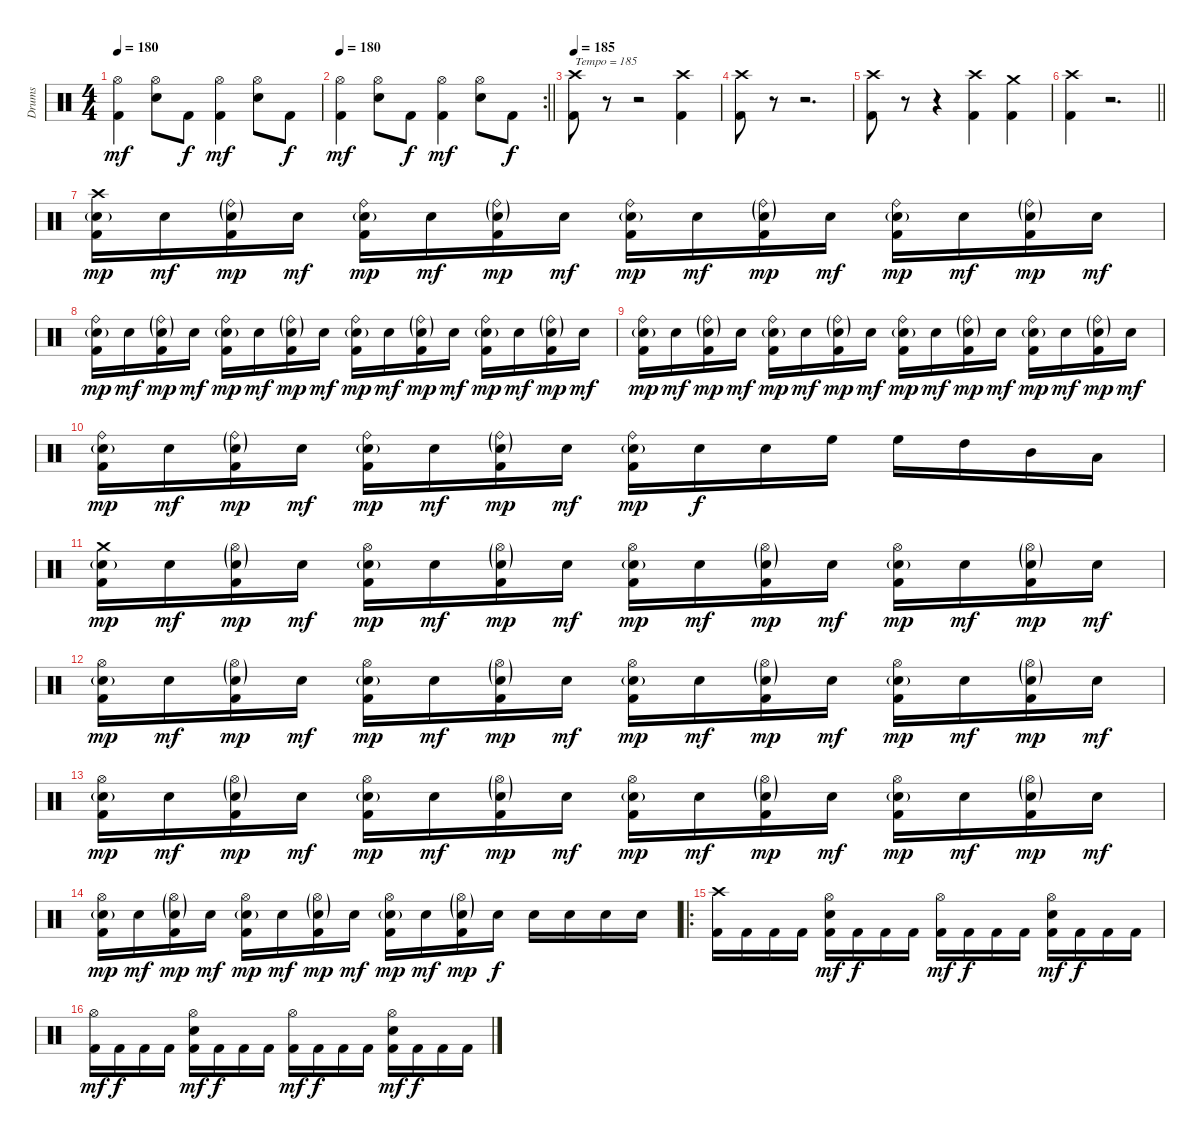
\track ("Drums" "Drums") {instrument percussion}
\staff {score}
\articulation defaults
\ts (4 4)
\tempo 180
\clef neutral
\ks c
("Hi-Hat (open)" "Kick (hit) 2").4{dy mf} ("Hi-Hat (open)" "Electric Snare (hit)").8 "Kick (hit) 2".8{dy f} ("Hi-Hat (open)" "Kick (hit) 2").4{dy mf} ("Hi-Hat (open)" "Electric Snare (hit)").8 "Kick (hit) 2".8{dy f} |
\rc 2
\tempo 180
\barLineRight lightlight
("Hi-Hat (open)" "Kick (hit) 2").4{dy mf} ("Hi-Hat (open)" "Electric Snare (hit)").8 "Kick (hit) 2".8{dy f} ("Hi-Hat (open)" "Kick (hit) 2").4{dy mf} ("Hi-Hat (open)" "Electric Snare (hit)").8 "Kick (hit) 2".8{dy f} |
\tempo 185
("Crash high (hit)" "Kick (hit) 2").8{txt "Tempo = 185"} r.8{volume 0} r.2 ("Crash high (hit)" "Kick (hit) 2").4{volume 14} |
("Crash high (hit)" "Kick (hit) 2").8 r.8{volume 0} r.2{d} |
("Crash high (hit)" "Kick (hit) 2").8{volume 14} r.8{volume 0} r.4 ("Crash high (hit)" "Kick (hit) 2").4{volume 14} ("Crash medium (hit)" "Kick (hit) 2").4 |
\barLineRight lightlight
("Crash high (hit)" "Kick (hit) 2").4 r.2{d volume 0} |
("Crash high (hit)" "Electric Snare (hit)"{g} "Kick (hit) 2").16{dy mp volume 14} "Electric Snare (hit)".16{dy mf} ("Ride (bell)"{g} "Electric Snare (hit)"{g} "Kick (hit) 2").16{dy mp} "Electric Snare (hit)".16{dy mf} ("Ride (bell)" "Electric Snare (hit)"{g} "Kick (hit) 2").16{dy mp} "Electric Snare (hit)".16{dy mf} ("Ride (bell)"{g} "Electric Snare (hit)"{g} "Kick (hit) 2").16{dy mp} "Electric Snare (hit)".16{dy mf} ("Ride (bell)" "Electric Snare (hit)"{g} "Kick (hit) 2").16{dy mp} "Electric Snare (hit)".16{dy mf} ("Ride (bell)"{g} "Electric Snare (hit)"{g} "Kick (hit) 2").16{dy mp} "Electric Snare (hit)".16{dy mf} ("Ride (bell)" "Electric Snare (hit)"{g} "Kick (hit) 2").16{dy mp} "Electric Snare (hit)".16{dy mf} ("Ride (bell)"{g} "Electric Snare (hit)"{g} "Kick (hit) 2").16{dy mp} "Electric Snare (hit)".16{dy mf} |
("Ride (bell)" "Electric Snare (hit)"{g} "Kick (hit) 2").16{dy mp} "Electric Snare (hit)".16{dy mf} ("Ride (bell)"{g} "Electric Snare (hit)"{g} "Kick (hit) 2").16{dy mp} "Electric Snare (hit)".16{dy mf} ("Ride (bell)" "Electric Snare (hit)"{g} "Kick (hit) 2").16{dy mp} "Electric Snare (hit)".16{dy mf} ("Ride (bell)"{g} "Electric Snare (hit)"{g} "Kick (hit) 2").16{dy mp} "Electric Snare (hit)".16{dy mf} ("Ride (bell)" "Electric Snare (hit)"{g} "Kick (hit) 2").16{dy mp} "Electric Snare (hit)".16{dy mf} ("Ride (bell)"{g} "Electric Snare (hit)"{g} "Kick (hit) 2").16{dy mp} "Electric Snare (hit)".16{dy mf} ("Ride (bell)" "Electric Snare (hit)"{g} "Kick (hit) 2").16{dy mp} "Electric Snare (hit)".16{dy mf} ("Ride (bell)"{g} "Electric Snare (hit)"{g} "Kick (hit) 2").16{dy mp} "Electric Snare (hit)".16{dy mf} |
("Ride (bell)" "Electric Snare (hit)"{g} "Kick (hit) 2").16{dy mp} "Electric Snare (hit)".16{dy mf} ("Ride (bell)"{g} "Electric Snare (hit)"{g} "Kick (hit) 2").16{dy mp} "Electric Snare (hit)".16{dy mf} ("Ride (bell)" "Electric Snare (hit)"{g} "Kick (hit) 2").16{dy mp} "Electric Snare (hit)".16{dy mf} ("Ride (bell)"{g} "Electric Snare (hit)"{g} "Kick (hit) 2").16{dy mp} "Electric Snare (hit)".16{dy mf} ("Ride (bell)" "Electric Snare (hit)"{g} "Kick (hit) 2").16{dy mp} "Electric Snare (hit)".16{dy mf} ("Ride (bell)"{g} "Electric Snare (hit)"{g} "Kick (hit) 2").16{dy mp} "Electric Snare (hit)".16{dy mf} ("Ride (bell)" "Electric Snare (hit)"{g} "Kick (hit) 2").16{dy mp} "Electric Snare (hit)".16{dy mf} ("Ride (bell)"{g} "Electric Snare (hit)"{g} "Kick (hit) 2").16{dy mp} "Electric Snare (hit)".16{dy mf} |
("Ride (bell)" "Electric Snare (hit)"{g} "Kick (hit) 2").16{dy mp} "Electric Snare (hit)".16{dy mf} ("Ride (bell)"{g} "Electric Snare (hit)"{g} "Kick (hit) 2").16{dy mp} "Electric Snare (hit)".16{dy mf} ("Ride (bell)" "Electric Snare (hit)"{g} "Kick (hit) 2").16{dy mp} "Electric Snare (hit)".16{dy mf} ("Ride (bell)"{g} "Electric Snare (hit)"{g} "Kick (hit) 2").16{dy mp} "Electric Snare (hit)".16{dy mf} ("Ride (bell)" "Electric Snare (hit)"{g} "Kick (hit) 2").16{dy mp} "Electric Snare (hit)".16{dy f} "Electric Snare (hit)".16 "High Floor Tom (hit)".16 "High Floor Tom (hit)".16 "High Tom (hit)".16 "Mid Tom (hit)".16 "Low Tom (hit)".16 |
("Crash medium (hit)" "Electric Snare (hit)"{g} "Kick (hit) 2").16{dy mp} "Electric Snare (hit)".16{dy mf} ("Hi-Hat (open)"{g} "Electric Snare (hit)"{g} "Kick (hit) 2").16{dy mp} "Electric Snare (hit)".16{dy mf} ("Hi-Hat (open)" "Electric Snare (hit)"{g} "Kick (hit) 2").16{dy mp} "Electric Snare (hit)".16{dy mf} ("Hi-Hat (open)"{g} "Electric Snare (hit)"{g} "Kick (hit) 2").16{dy mp} "Electric Snare (hit)".16{dy mf} ("Hi-Hat (open)" "Electric Snare (hit)"{g} "Kick (hit) 2").16{dy mp} "Electric Snare (hit)".16{dy mf} ("Hi-Hat (open)"{g} "Electric Snare (hit)"{g} "Kick (hit) 2").16{dy mp} "Electric Snare (hit)".16{dy mf} ("Hi-Hat (open)" "Electric Snare (hit)"{g} "Kick (hit) 2").16{dy mp} "Electric Snare (hit)".16{dy mf} ("Hi-Hat (open)"{g} "Electric Snare (hit)"{g} "Kick (hit) 2").16{dy mp} "Electric Snare (hit)".16{dy mf} |
("Hi-Hat (open)" "Electric Snare (hit)"{g} "Kick (hit) 2").16{dy mp} "Electric Snare (hit)".16{dy mf} ("Hi-Hat (open)"{g} "Electric Snare (hit)"{g} "Kick (hit) 2").16{dy mp} "Electric Snare (hit)".16{dy mf} ("Hi-Hat (open)" "Electric Snare (hit)"{g} "Kick (hit) 2").16{dy mp} "Electric Snare (hit)".16{dy mf} ("Hi-Hat (open)"{g} "Electric Snare (hit)"{g} "Kick (hit) 2").16{dy mp} "Electric Snare (hit)".16{dy mf} ("Hi-Hat (open)" "Electric Snare (hit)"{g} "Kick (hit) 2").16{dy mp} "Electric Snare (hit)".16{dy mf} ("Hi-Hat (open)"{g} "Electric Snare (hit)"{g} "Kick (hit) 2").16{dy mp} "Electric Snare (hit)".16{dy mf} ("Hi-Hat (open)" "Electric Snare (hit)"{g} "Kick (hit) 2").16{dy mp} "Electric Snare (hit)".16{dy mf} ("Hi-Hat (open)"{g} "Electric Snare (hit)"{g} "Kick (hit) 2").16{dy mp} "Electric Snare (hit)".16{dy mf} |
("Hi-Hat (open)" "Electric Snare (hit)"{g} "Kick (hit) 2").16{dy mp} "Electric Snare (hit)".16{dy mf} ("Hi-Hat (open)"{g} "Electric Snare (hit)"{g} "Kick (hit) 2").16{dy mp} "Electric Snare (hit)".16{dy mf} ("Hi-Hat (open)" "Electric Snare (hit)"{g} "Kick (hit) 2").16{dy mp} "Electric Snare (hit)".16{dy mf} ("Hi-Hat (open)"{g} "Electric Snare (hit)"{g} "Kick (hit) 2").16{dy mp} "Electric Snare (hit)".16{dy mf} ("Hi-Hat (open)" "Electric Snare (hit)"{g} "Kick (hit) 2").16{dy mp} "Electric Snare (hit)".16{dy mf} ("Hi-Hat (open)"{g} "Electric Snare (hit)"{g} "Kick (hit) 2").16{dy mp} "Electric Snare (hit)".16{dy mf} ("Hi-Hat (open)" "Electric Snare (hit)"{g} "Kick (hit) 2").16{dy mp} "Electric Snare (hit)".16{dy mf} ("Hi-Hat (open)"{g} "Electric Snare (hit)"{g} "Kick (hit) 2").16{dy mp} "Electric Snare (hit)".16{dy mf} |
("Hi-Hat (open)" "Electric Snare (hit)"{g} "Kick (hit) 2").16{dy mp} "Electric Snare (hit)".16{dy mf} ("Hi-Hat (open)"{g} "Electric Snare (hit)"{g} "Kick (hit) 2").16{dy mp} "Electric Snare (hit)".16{dy mf} ("Hi-Hat (open)" "Electric Snare (hit)"{g} "Kick (hit) 2").16{dy mp} "Electric Snare (hit)".16{dy mf} ("Hi-Hat (open)"{g} "Electric Snare (hit)"{g} "Kick (hit) 2").16{dy mp} "Electric Snare (hit)".16{dy mf} ("Hi-Hat (open)" "Electric Snare (hit)"{g} "Kick (hit) 2").16{dy mp} "Electric Snare (hit)".16{dy mf} ("Hi-Hat (open)"{g} "Electric Snare (hit)"{g} "Kick (hit) 2").16{dy mp} "Electric Snare (hit)".16{dy f} "Electric Snare (hit)".16 "Electric Snare (hit)".16 "Electric Snare (hit)".16 "Electric Snare (hit)".16 |
\ro
("Crash high (hit)" "Kick (hit) 2").16 "Kick (hit) 2".16 "Kick (hit) 2".16 "Kick (hit) 2".16 ("Hi-Hat (open)" "Electric Snare (hit)" "Kick (hit) 2").16{dy mf} "Kick (hit) 2".16{dy f} "Kick (hit) 2".16 "Kick (hit) 2".16 ("Hi-Hat (open)" "Kick (hit) 2").16{dy mf} "Kick (hit) 2".16{dy f} "Kick (hit) 2".16 "Kick (hit) 2".16 ("Hi-Hat (open)" "Electric Snare (hit)" "Kick (hit) 2").16{dy mf} "Kick (hit) 2".16{dy f} "Kick (hit) 2".16 "Kick (hit) 2".16 |
("Hi-Hat (open)" "Kick (hit) 2").16{dy mf} "Kick (hit) 2".16{dy f} "Kick (hit) 2".16 "Kick (hit) 2".16 ("Hi-Hat (open)" "Electric Snare (hit)" "Kick (hit) 2").16{dy mf} "Kick (hit) 2".16{dy f} "Kick (hit) 2".16 "Kick (hit) 2".16 ("Hi-Hat (open)" "Kick (hit) 2").16{dy mf} "Kick (hit) 2".16{dy f} "Kick (hit) 2".16 "Kick (hit) 2".16 ("Hi-Hat (open)" "Electric Snare (hit)" "Kick (hit) 2").16{dy mf} "Kick (hit) 2".16{dy f} "Kick (hit) 2".16 "Kick (hit) 2".16
